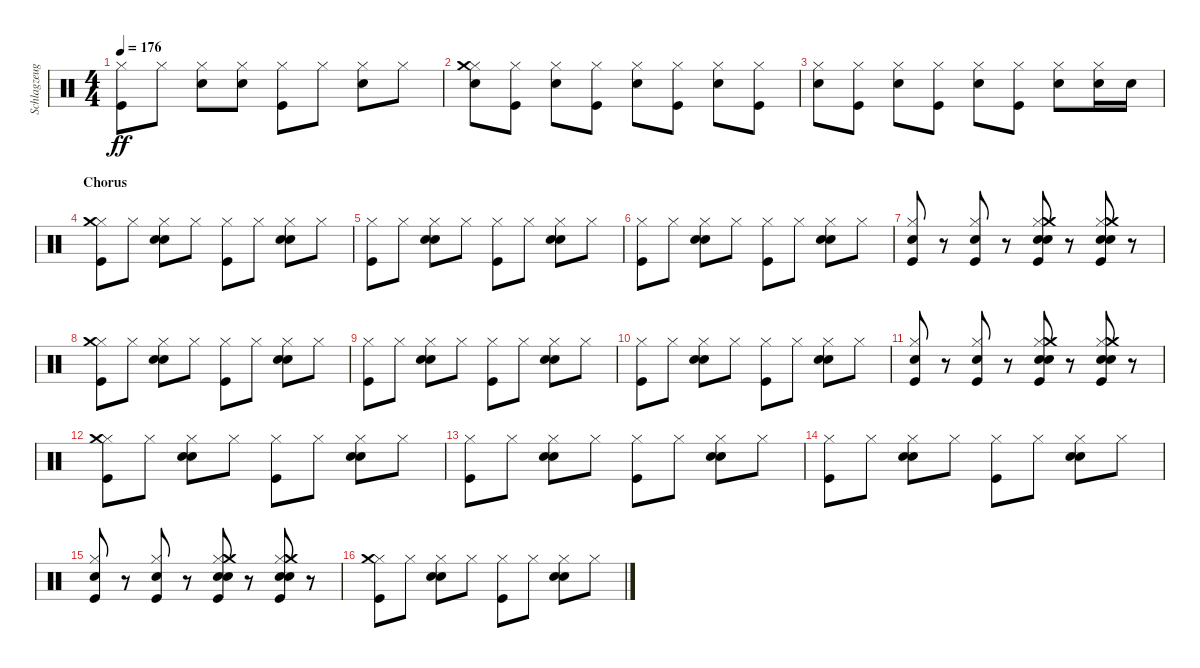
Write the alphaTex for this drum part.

\track ("Schlagzeug - Bela B." "Schlagzeug") {instrument percussion}
\staff {score}
\articulation defaults
\ts (4 4)
\tempo 176
\clef neutral
\ks c
("Kick (hit)" "Hi-Hat (closed)").8{dy ff} "Hi-Hat (closed)".8 ("Electric Snare (hit)" "Hi-Hat (closed)").8 ("Hi-Hat (closed)" "Electric Snare (hit)").8 ("Hi-Hat (closed)" "Kick (hit)").8 "Hi-Hat (closed)".8 ("Hi-Hat (closed)" "Electric Snare (hit)").8 "Hi-Hat (closed)".8 |
("Electric Snare (hit)" "Hi-Hat (closed)" "Crash medium (hit)").8 ("Kick (hit)" "Hi-Hat (closed)").8 ("Electric Snare (hit)" "Hi-Hat (closed)").8 ("Kick (hit)" "Hi-Hat (closed)").8 ("Electric Snare (hit)" "Hi-Hat (closed)").8 ("Kick (hit)" "Hi-Hat (closed)").8 ("Electric Snare (hit)" "Hi-Hat (closed)").8 ("Kick (hit)" "Hi-Hat (closed)").8 |
("Electric Snare (hit)" "Hi-Hat (closed)").8 ("Kick (hit)" "Hi-Hat (closed)").8 ("Electric Snare (hit)" "Hi-Hat (closed)").8 ("Kick (hit)" "Hi-Hat (closed)").8 ("Electric Snare (hit)" "Hi-Hat (closed)").8 ("Kick (hit)" "Hi-Hat (closed)").8 ("Electric Snare (hit)" "Hi-Hat (closed)").8 ("Electric Snare (hit)" "Hi-Hat (closed)").16 "Electric Snare (hit)".16 |
\section ("" "Chorus")
("Kick (hit)" "Hi-Hat (closed)" "Crash medium (hit)").8 "Hi-Hat (closed)".8 ("Hi-Hat (closed)" "Hand Clap (hit)" "Electric Snare (hit)").8 "Hi-Hat (closed)".8 ("Hi-Hat (closed)" "Kick (hit)").8 "Hi-Hat (closed)".8 ("Hi-Hat (closed)" "Hand Clap (hit)" "Electric Snare (hit)").8 "Hi-Hat (closed)".8 |
("Kick (hit)" "Hi-Hat (closed)").8 "Hi-Hat (closed)".8 ("Hi-Hat (closed)" "Hand Clap (hit)" "Electric Snare (hit)").8 "Hi-Hat (closed)".8 ("Hi-Hat (closed)" "Kick (hit)").8 "Hi-Hat (closed)".8 ("Hi-Hat (closed)" "Hand Clap (hit)" "Electric Snare (hit)").8 "Hi-Hat (closed)".8 |
("Kick (hit)" "Hi-Hat (closed)").8 "Hi-Hat (closed)".8 ("Hi-Hat (closed)" "Hand Clap (hit)" "Electric Snare (hit)").8 "Hi-Hat (closed)".8 ("Hi-Hat (closed)" "Kick (hit)").8 "Hi-Hat (closed)".8 ("Hi-Hat (closed)" "Hand Clap (hit)" "Electric Snare (hit)").8 "Hi-Hat (closed)".8 |
("Kick (hit)" "Hi-Hat (closed)" "Electric Snare (hit)").8 r.8 ("Kick (hit)" "Hi-Hat (closed)" "Electric Snare (hit)").8 r.8 ("Hand Clap (hit)" "Kick (hit)" "Hi-Hat (closed)" "Electric Snare (hit)" "Crash medium (hit)").8 r.8 ("Hi-Hat (closed)" "Hand Clap (hit)" "Electric Snare (hit)" "Kick (hit)" "Crash medium (hit)").8 r.8 |
("Kick (hit)" "Hi-Hat (closed)" "Crash medium (hit)").8 "Hi-Hat (closed)".8 ("Hi-Hat (closed)" "Hand Clap (hit)" "Electric Snare (hit)").8 "Hi-Hat (closed)".8 ("Hi-Hat (closed)" "Kick (hit)").8 "Hi-Hat (closed)".8 ("Hi-Hat (closed)" "Hand Clap (hit)" "Electric Snare (hit)").8 "Hi-Hat (closed)".8 |
("Kick (hit)" "Hi-Hat (closed)").8 "Hi-Hat (closed)".8 ("Hi-Hat (closed)" "Hand Clap (hit)" "Electric Snare (hit)").8 "Hi-Hat (closed)".8 ("Hi-Hat (closed)" "Kick (hit)").8 "Hi-Hat (closed)".8 ("Hi-Hat (closed)" "Hand Clap (hit)" "Electric Snare (hit)").8 "Hi-Hat (closed)".8 |
("Kick (hit)" "Hi-Hat (closed)").8 "Hi-Hat (closed)".8 ("Hi-Hat (closed)" "Hand Clap (hit)" "Electric Snare (hit)").8 "Hi-Hat (closed)".8 ("Hi-Hat (closed)" "Kick (hit)").8 "Hi-Hat (closed)".8 ("Hi-Hat (closed)" "Hand Clap (hit)" "Electric Snare (hit)").8 "Hi-Hat (closed)".8 |
("Kick (hit)" "Hi-Hat (closed)" "Electric Snare (hit)").8 r.8 ("Kick (hit)" "Hi-Hat (closed)" "Electric Snare (hit)").8 r.8 ("Hand Clap (hit)" "Kick (hit)" "Hi-Hat (closed)" "Electric Snare (hit)" "Crash medium (hit)").8 r.8 ("Hi-Hat (closed)" "Hand Clap (hit)" "Electric Snare (hit)" "Kick (hit)" "Crash medium (hit)").8 r.8 |
("Kick (hit)" "Hi-Hat (closed)" "Crash medium (hit)").8 "Hi-Hat (closed)".8 ("Hi-Hat (closed)" "Hand Clap (hit)" "Electric Snare (hit)").8 "Hi-Hat (closed)".8 ("Hi-Hat (closed)" "Kick (hit)").8 "Hi-Hat (closed)".8 ("Hi-Hat (closed)" "Hand Clap (hit)" "Electric Snare (hit)").8 "Hi-Hat (closed)".8 |
("Kick (hit)" "Hi-Hat (closed)").8 "Hi-Hat (closed)".8 ("Hi-Hat (closed)" "Hand Clap (hit)" "Electric Snare (hit)").8 "Hi-Hat (closed)".8 ("Hi-Hat (closed)" "Kick (hit)").8 "Hi-Hat (closed)".8 ("Hi-Hat (closed)" "Hand Clap (hit)" "Electric Snare (hit)").8 "Hi-Hat (closed)".8 |
("Kick (hit)" "Hi-Hat (closed)").8 "Hi-Hat (closed)".8 ("Hi-Hat (closed)" "Hand Clap (hit)" "Electric Snare (hit)").8 "Hi-Hat (closed)".8 ("Hi-Hat (closed)" "Kick (hit)").8 "Hi-Hat (closed)".8 ("Hi-Hat (closed)" "Hand Clap (hit)" "Electric Snare (hit)").8 "Hi-Hat (closed)".8 |
("Kick (hit)" "Hi-Hat (closed)" "Electric Snare (hit)").8 r.8 ("Kick (hit)" "Hi-Hat (closed)" "Electric Snare (hit)").8 r.8 ("Hand Clap (hit)" "Kick (hit)" "Hi-Hat (closed)" "Electric Snare (hit)" "Crash medium (hit)").8 r.8 ("Hi-Hat (closed)" "Hand Clap (hit)" "Electric Snare (hit)" "Kick (hit)" "Crash medium (hit)").8 r.8 |
("Kick (hit)" "Hi-Hat (closed)" "Crash medium (hit)").8 "Hi-Hat (closed)".8 ("Hi-Hat (closed)" "Hand Clap (hit)" "Electric Snare (hit)").8 "Hi-Hat (closed)".8 ("Hi-Hat (closed)" "Kick (hit)").8 "Hi-Hat (closed)".8 ("Hi-Hat (closed)" "Hand Clap (hit)" "Electric Snare (hit)").8 "Hi-Hat (closed)".8
